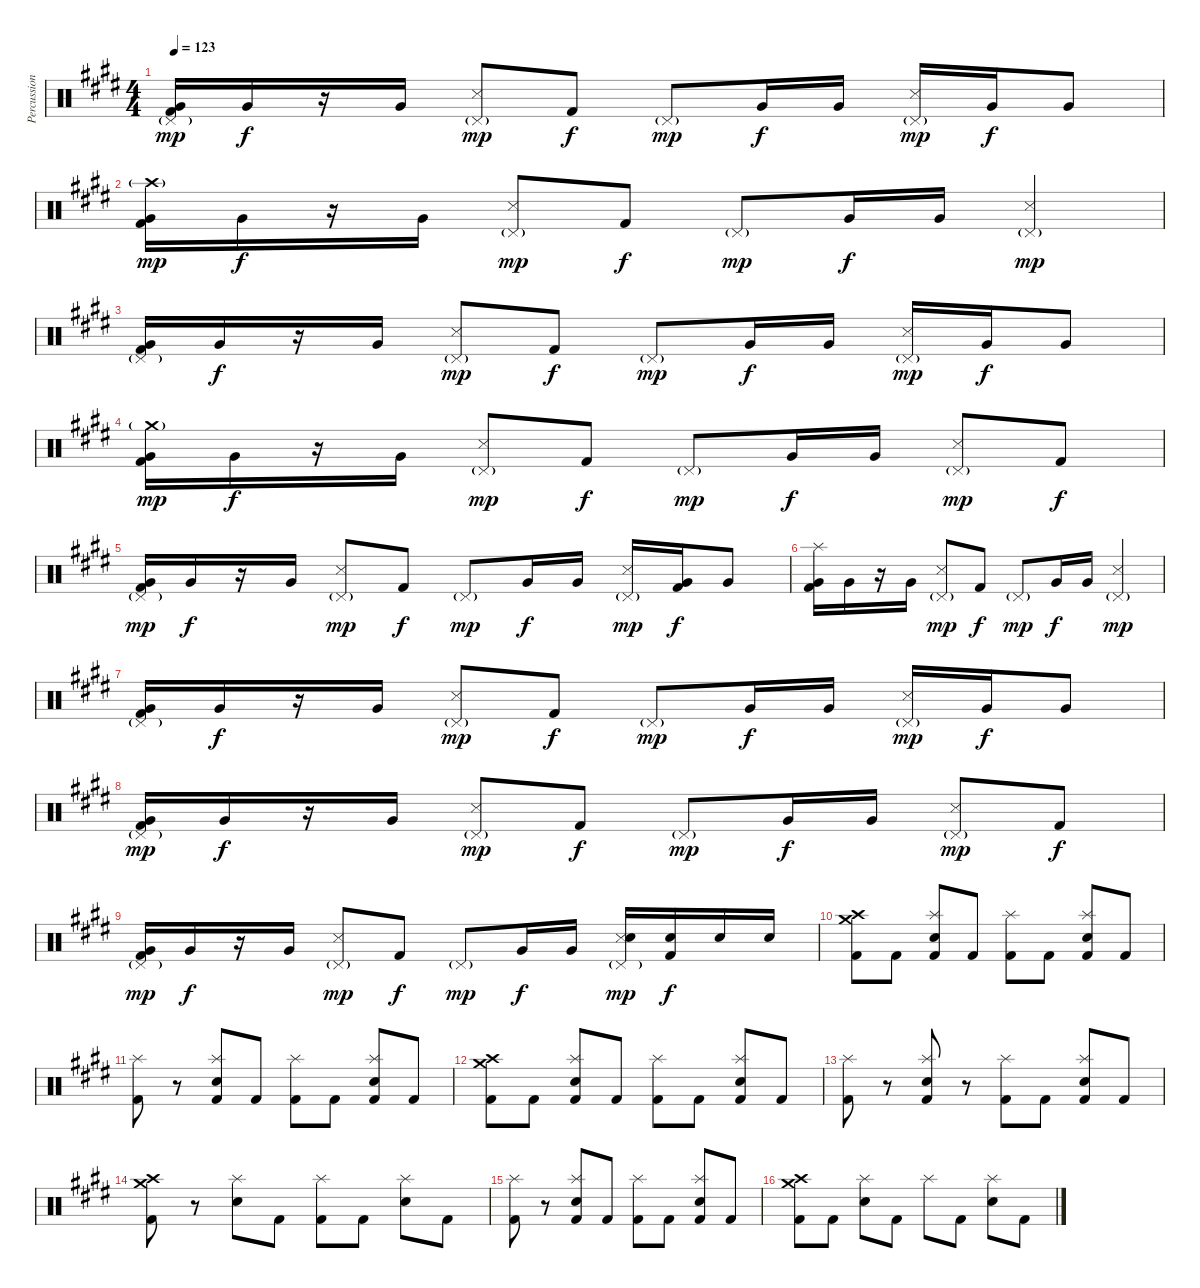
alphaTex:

\track ("Percussioni" "Percussion") {instrument percussion}
\staff {score}
\articulation defaults
\ts (4 4)
\tempo 123
\clef neutral
\ks e
("Pedal Hi-Hat (hit)"{g} "Very Low Tom (hit)" "Kick (hit) 2").16{dy mp} "Very Low Tom (hit)".16{dy f} r.16 "Very Low Tom (hit)".16 ("Pedal Hi-Hat (hit)"{g} "Metronome (hit)").8{dy mp} "Kick (hit) 2".8{dy f} "Pedal Hi-Hat (hit)"{g}.8{dy mp} "Very Low Tom (hit)".16{dy f} "Very Low Tom (hit)".16 ("Pedal Hi-Hat (hit)"{g} "Metronome (hit)").16{dy mp} "Very Low Tom (hit)".16{dy f} "Very Low Tom (hit)".8 |
("Crash high (hit)"{g} "Very Low Tom (hit)" "Kick (hit) 2").16{dy mp} "Very Low Tom (hit)".16{dy f} r.16 "Very Low Tom (hit)".16 ("Pedal Hi-Hat (hit)"{g} "Metronome (hit)").8{dy mp} "Kick (hit) 2".8{dy f} "Pedal Hi-Hat (hit)"{g}.8{dy mp} "Very Low Tom (hit)".16{dy f} "Very Low Tom (hit)".16 ("Pedal Hi-Hat (hit)"{g} "Metronome (hit)").4{dy mp} |
("Pedal Hi-Hat (hit)"{g} "Very Low Tom (hit)" "Kick (hit) 2").16 "Very Low Tom (hit)".16{dy f} r.16 "Very Low Tom (hit)".16 ("Pedal Hi-Hat (hit)"{g} "Metronome (hit)").8{dy mp} "Kick (hit) 2".8{dy f} "Pedal Hi-Hat (hit)"{g}.8{dy mp} "Very Low Tom (hit)".16{dy f} "Very Low Tom (hit)".16 ("Pedal Hi-Hat (hit)"{g} "Metronome (hit)").16{dy mp} "Very Low Tom (hit)".16{dy f} "Very Low Tom (hit)".8 |
("Crash medium (hit)"{g} "Very Low Tom (hit)" "Kick (hit) 2").16{dy mp} "Very Low Tom (hit)".16{dy f} r.16 "Very Low Tom (hit)".16 ("Pedal Hi-Hat (hit)"{g} "Metronome (hit)").8{dy mp} "Kick (hit) 2".8{dy f} "Pedal Hi-Hat (hit)"{g}.8{dy mp} "Very Low Tom (hit)".16{dy f} "Very Low Tom (hit)".16 ("Pedal Hi-Hat (hit)"{g} "Metronome (hit)").8{dy mp} "Kick (hit) 2".8{dy f} |
("Pedal Hi-Hat (hit)"{g} "Very Low Tom (hit)" "Kick (hit) 2").16{dy mp} "Very Low Tom (hit)".16{dy f} r.16 "Very Low Tom (hit)".16 ("Pedal Hi-Hat (hit)"{g} "Metronome (hit)").8{dy mp} "Kick (hit) 2".8{dy f} "Pedal Hi-Hat (hit)"{g}.8{dy mp} "Very Low Tom (hit)".16{dy f} "Very Low Tom (hit)".16 ("Pedal Hi-Hat (hit)"{g} "Metronome (hit)").16{dy mp} ("Very Low Tom (hit)" "Kick (hit) 2").16{dy f} "Very Low Tom (hit)".8 |
("Splash (hit)" "Very Low Tom (hit)" "Kick (hit) 2").16 "Very Low Tom (hit)".16 r.16 "Very Low Tom (hit)".16 ("Pedal Hi-Hat (hit)"{g} "Metronome (hit)").8{dy mp} "Kick (hit) 2".8{dy f} "Pedal Hi-Hat (hit)"{g}.8{dy mp} "Very Low Tom (hit)".16{dy f} "Very Low Tom (hit)".16 ("Pedal Hi-Hat (hit)"{g} "Metronome (hit)").4{dy mp} |
("Pedal Hi-Hat (hit)"{g} "Very Low Tom (hit)" "Kick (hit) 2").16 "Very Low Tom (hit)".16{dy f} r.16 "Very Low Tom (hit)".16 ("Pedal Hi-Hat (hit)"{g} "Metronome (hit)").8{dy mp} "Kick (hit) 2".8{dy f} "Pedal Hi-Hat (hit)"{g}.8{dy mp} "Very Low Tom (hit)".16{dy f} "Very Low Tom (hit)".16 ("Pedal Hi-Hat (hit)"{g} "Metronome (hit)").16{dy mp} "Very Low Tom (hit)".16{dy f} "Very Low Tom (hit)".8 |
("Pedal Hi-Hat (hit)"{g} "Very Low Tom (hit)" "Kick (hit) 2").16{dy mp} "Very Low Tom (hit)".16{dy f} r.16 "Very Low Tom (hit)".16 ("Pedal Hi-Hat (hit)"{g} "Metronome (hit)").8{dy mp} "Kick (hit) 2".8{dy f} "Pedal Hi-Hat (hit)"{g}.8{dy mp} "Very Low Tom (hit)".16{dy f} "Very Low Tom (hit)".16 ("Pedal Hi-Hat (hit)"{g} "Metronome (hit)").8{dy mp} "Kick (hit) 2".8{dy f} |
("Pedal Hi-Hat (hit)"{g} "Very Low Tom (hit)" "Kick (hit) 2").16{dy mp} "Very Low Tom (hit)".16{dy f} r.16 "Very Low Tom (hit)".16 ("Pedal Hi-Hat (hit)"{g} "Metronome (hit)").8{dy mp} "Kick (hit) 2".8{dy f} "Pedal Hi-Hat (hit)"{g}.8{dy mp} "Very Low Tom (hit)".16{dy f} "Very Low Tom (hit)".16 ("Pedal Hi-Hat (hit)"{g} "Metronome (hit)" "Electric Snare (hit)").16{dy mp} ("Electric Snare (hit)" "Kick (hit) 2").16{dy f} "Electric Snare (hit)".16 "Electric Snare (hit)".16 |
("Crash high (hit)" "Crash medium (hit)" "Kick (hit) 2").8 "Kick (hit) 2".8 ("Splash (hit)" "Electric Snare (hit)" "Kick (hit) 2").8 "Kick (hit) 2".8 ("Splash (hit)" "Kick (hit) 2").8 "Kick (hit) 2".8 ("Splash (hit)" "Electric Snare (hit)" "Kick (hit) 2").8 "Kick (hit) 2".8 |
("Splash (hit)" "Kick (hit) 2").8 r.8 ("Splash (hit)" "Electric Snare (hit)" "Kick (hit) 2").8 "Kick (hit) 2".8 ("Splash (hit)" "Kick (hit) 2").8 "Kick (hit) 2".8 ("Splash (hit)" "Electric Snare (hit)" "Kick (hit) 2").8 "Kick (hit) 2".8 |
("Crash high (hit)" "Crash medium (hit)" "Kick (hit) 2").8 "Kick (hit) 2".8 ("Splash (hit)" "Electric Snare (hit)" "Kick (hit) 2").8 "Kick (hit) 2".8 ("Splash (hit)" "Kick (hit) 2").8 "Kick (hit) 2".8 ("Splash (hit)" "Electric Snare (hit)" "Kick (hit) 2").8 "Kick (hit) 2".8 |
("Splash (hit)" "Kick (hit) 2").8 r.8 ("Splash (hit)" "Electric Snare (hit)" "Kick (hit) 2").8 r.8 ("Splash (hit)" "Kick (hit) 2").8 "Kick (hit) 2".8 ("Splash (hit)" "Electric Snare (hit)" "Kick (hit) 2").8 "Kick (hit) 2".8 |
("Crash high (hit)" "Crash medium (hit)" "Kick (hit) 2").8 r.8 ("Splash (hit)" "Electric Snare (hit)").8 "Kick (hit) 2".8 ("Splash (hit)" "Kick (hit) 2").8 "Kick (hit) 2".8 ("Splash (hit)" "Electric Snare (hit)").8 "Kick (hit) 2".8 |
("Splash (hit)" "Kick (hit) 2").8 r.8 ("Splash (hit)" "Electric Snare (hit)" "Kick (hit) 2").8 "Kick (hit) 2".8 ("Splash (hit)" "Kick (hit) 2").8 "Kick (hit) 2".8 ("Splash (hit)" "Electric Snare (hit)" "Kick (hit) 2").8 "Kick (hit) 2".8 |
("Crash high (hit)" "Crash medium (hit)" "Kick (hit) 2").8 "Kick (hit) 2".8 ("Splash (hit)" "Electric Snare (hit)").8 "Kick (hit) 2".8 "Splash (hit)".8 "Kick (hit) 2".8 ("Splash (hit)" "Electric Snare (hit)").8 "Kick (hit) 2".8
